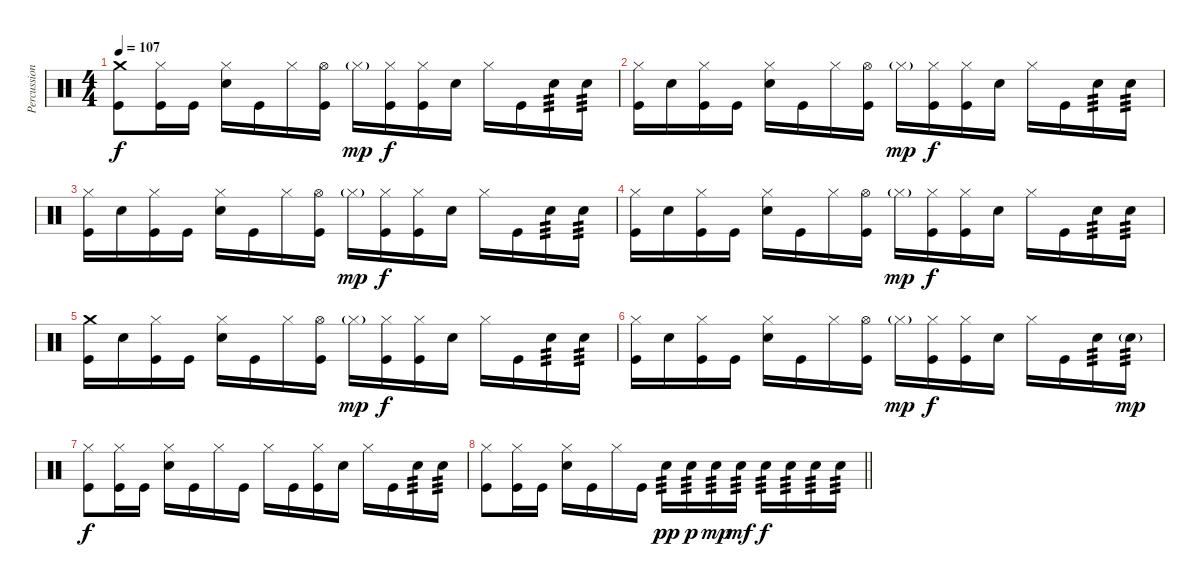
\track ("Percussion" "Percussion") {instrument percussion}
\staff {score}
\articulation defaults
\ts (4 4)
\tempo 107
\clef neutral
\ks c
("Crash medium (hit)" "Kick (hit)").8{dy f} ("Hi-Hat (closed)" "Kick (hit)").16 "Kick (hit)".16 ("Hi-Hat (closed)" "Snare (hit) 2").16 "Kick (hit)".16 "Hi-Hat (closed)".16 ("Hi-Hat (open)" "Kick (hit)").16 "Hi-Hat (closed)"{g}.16{dy mp} ("Hi-Hat (closed)" "Kick (hit)").16{dy f} ("Hi-Hat (closed)" "Kick (hit)").16 "Snare (hit) 2".16 "Hi-Hat (closed)".16 "Kick (hit)".16 "Snare (hit) 2".16{tp 3} "Snare (hit) 2".16{tp 3} |
("Hi-Hat (closed)" "Kick (hit)").16 "Snare (hit) 2".16 ("Hi-Hat (closed)" "Kick (hit)").16 "Kick (hit)".16 ("Hi-Hat (closed)" "Snare (hit) 2").16 "Kick (hit)".16 "Hi-Hat (closed)".16 ("Hi-Hat (open)" "Kick (hit)").16 "Hi-Hat (closed)"{g}.16{dy mp} ("Hi-Hat (closed)" "Kick (hit)").16{dy f} ("Hi-Hat (closed)" "Kick (hit)").16 "Snare (hit) 2".16 "Hi-Hat (closed)".16 "Kick (hit)".16 "Snare (hit) 2".16{tp 3} "Snare (hit) 2".16{tp 3} |
("Hi-Hat (closed)" "Kick (hit)").16 "Snare (hit) 2".16 ("Hi-Hat (closed)" "Kick (hit)").16 "Kick (hit)".16 ("Hi-Hat (closed)" "Snare (hit) 2").16 "Kick (hit)".16 "Hi-Hat (closed)".16 ("Hi-Hat (open)" "Kick (hit)").16 "Hi-Hat (closed)"{g}.16{dy mp} ("Hi-Hat (closed)" "Kick (hit)").16{dy f} ("Hi-Hat (closed)" "Kick (hit)").16 "Snare (hit) 2".16 "Hi-Hat (closed)".16 "Kick (hit)".16 "Snare (hit) 2".16{tp 3} "Snare (hit) 2".16{tp 3} |
("Hi-Hat (closed)" "Kick (hit)").16 "Snare (hit) 2".16 ("Hi-Hat (closed)" "Kick (hit)").16 "Kick (hit)".16 ("Hi-Hat (closed)" "Snare (hit) 2").16 "Kick (hit)".16 "Hi-Hat (closed)".16 ("Hi-Hat (open)" "Kick (hit)").16 "Hi-Hat (closed)"{g}.16{dy mp} ("Hi-Hat (closed)" "Kick (hit)").16{dy f} ("Hi-Hat (closed)" "Kick (hit)").16 "Snare (hit) 2".16 "Hi-Hat (closed)".16 "Kick (hit)".16 "Snare (hit) 2".16{tp 3} "Snare (hit) 2".16{tp 3} |
("Crash medium (hit)" "Kick (hit)").16 "Snare (hit) 2".16 ("Hi-Hat (closed)" "Kick (hit)").16 "Kick (hit)".16 ("Hi-Hat (closed)" "Snare (hit) 2").16 "Kick (hit)".16 "Hi-Hat (closed)".16 ("Hi-Hat (open)" "Kick (hit)").16 "Hi-Hat (closed)"{g}.16{dy mp} ("Hi-Hat (closed)" "Kick (hit)").16{dy f} ("Hi-Hat (closed)" "Kick (hit)").16 "Snare (hit) 2".16 "Hi-Hat (closed)".16 "Kick (hit)".16 "Snare (hit) 2".16{tp 3} "Snare (hit) 2".16{tp 3} |
("Hi-Hat (closed)" "Kick (hit)").16 "Snare (hit) 2".16 ("Hi-Hat (closed)" "Kick (hit)").16 "Kick (hit)".16 ("Hi-Hat (closed)" "Snare (hit) 2").16 "Kick (hit)".16 "Hi-Hat (closed)".16 ("Hi-Hat (open)" "Kick (hit)").16 "Hi-Hat (closed)"{g}.16{dy mp} ("Hi-Hat (closed)" "Kick (hit)").16{dy f} ("Hi-Hat (closed)" "Kick (hit)").16 "Snare (hit) 2".16 "Hi-Hat (closed)".16 "Kick (hit)".16 "Snare (hit) 2".16{tp 3} "Snare (hit) 2"{g}.16{tp 3 dy mp} |
("Hi-Hat (closed)" "Kick (hit)").8{dy f} ("Hi-Hat (closed)" "Kick (hit)").16 "Kick (hit)".16 ("Hi-Hat (closed)" "Snare (hit) 2").16 "Kick (hit)".16 "Hi-Hat (closed)".16 "Kick (hit)".16 "Hi-Hat (closed)".16 "Kick (hit)".16 ("Hi-Hat (closed)" "Kick (hit)").16 "Snare (hit) 2".16 "Hi-Hat (closed)".16 "Kick (hit)".16 "Snare (hit) 2".16{tp 3} "Snare (hit) 2".16{tp 3} |
\barLineRight lightlight
("Hi-Hat (closed)" "Kick (hit)").8 ("Hi-Hat (closed)" "Kick (hit)").16 "Kick (hit)".16 ("Hi-Hat (closed)" "Snare (hit) 2").16 "Kick (hit)".16 "Hi-Hat (closed)".16 "Kick (hit)".16 "Snare (hit) 2".16{tp 3 dy pp} "Snare (hit) 2".16{tp 3 dy p} "Snare (hit) 2".16{tp 3 dy mp} "Snare (hit) 2".16{tp 3 dy mf} "Snare (hit) 2".16{tp 3 dy f} "Snare (hit) 2".16{tp 3} "Snare (hit) 2".16{tp 3} "Snare (hit) 2".16{tp 3}
